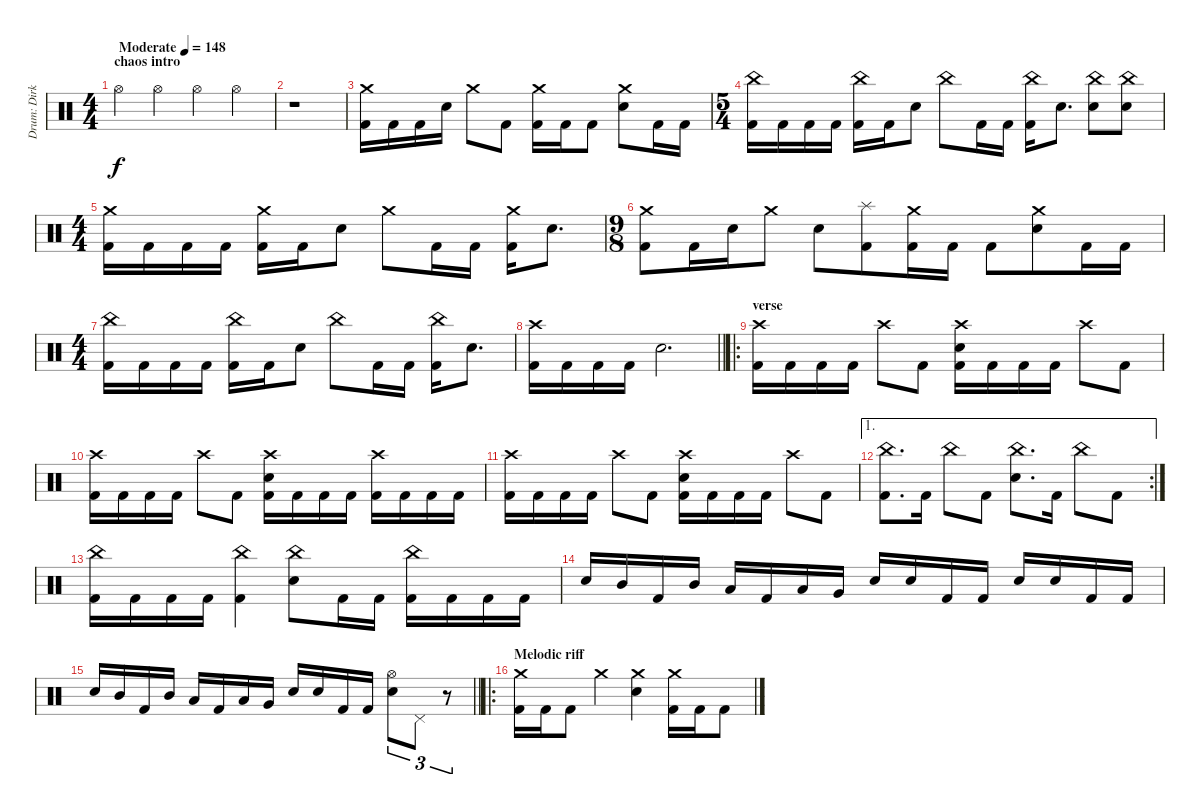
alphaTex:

\track ("Drum: Dirk" "Drum: Dirk") {instrument percussion}
\staff {score}
\articulation defaults
\ts (4 4)
\section ("" "chaos intro")
\tempo (148 "Moderate")
\clef neutral
\ks c "Hi-Hat (open)".4{dy f} "Hi-Hat (open)".4 "Hi-Hat (open)".4 "Hi-Hat (open)".4
|
r.1 |
("Crash medium (hit)" "Kick (hit) 2").16 "Kick (hit) 2".16 "Kick (hit) 2".16 "Electric Snare (hit)".16 "Crash medium (hit)".8 "Kick (hit) 2".8 ("Crash medium (hit)" "Kick (hit) 2").16 "Kick (hit) 2".16 "Kick (hit) 2".8 ("Crash medium (hit)" "Electric Snare (hit)").8 "Kick (hit) 2".16 "Kick (hit) 2".16 |
\ts (5 4)
("China (hit)" "Kick (hit) 2").16 "Kick (hit) 2".16 "Kick (hit) 2".16 "Kick (hit) 2".16 ("China (hit)" "Kick (hit) 2").16 "Kick (hit) 2".16 "Electric Snare (hit)".8 "China (hit)".8 "Kick (hit) 2".16 "Kick (hit) 2".16 ("China (hit)" "Kick (hit) 2").16 "Electric Snare (hit)".8{d} ("China (hit)" "Electric Snare (hit)").8 ("China (hit)" "Electric Snare (hit)").8 |
\ts (4 4)
("Crash medium (hit)" "Kick (hit) 2").16 "Kick (hit) 2".16 "Kick (hit) 2".16 "Kick (hit) 2".16 ("Crash medium (hit)" "Kick (hit) 2").16 "Kick (hit) 2".16 "Electric Snare (hit)".8 "Crash medium (hit)".8 "Kick (hit) 2".16 "Kick (hit) 2".16 ("Crash medium (hit)" "Kick (hit) 2").16 "Electric Snare (hit)".8{d} |
\ts (9 8)
("Crash medium (hit)" "Kick (hit) 2").8 "Kick (hit) 2".16 "Electric Snare (hit)".16 "Crash medium (hit)".8 "Electric Snare (hit)".8 ("Splash (hit)" "Kick (hit) 2").8 ("Crash medium (hit)" "Kick (hit) 2").16 "Kick (hit) 2".16 "Kick (hit) 2".8 ("Crash medium (hit)" "Electric Snare (hit)").8 "Kick (hit) 2".16 "Kick (hit) 2".16 |
\ts (4 4)
("China (hit)" "Kick (hit) 2").16 "Kick (hit) 2".16 "Kick (hit) 2".16 "Kick (hit) 2".16 ("China (hit)" "Kick (hit) 2").16 "Kick (hit) 2".16 "Electric Snare (hit)".8 "China (hit)".8 "Kick (hit) 2".16 "Kick (hit) 2".16 ("China (hit)" "Kick (hit) 2").16 "Electric Snare (hit)".8{d} |
\barLineRight lightlight
("Crash high (hit)" "Kick (hit) 2").16 "Kick (hit) 2".16 "Kick (hit) 2".16 "Kick (hit) 2".16 "Electric Snare (hit)".2{d} |
\ro
\section ("" "verse")
("Crash high (hit)" "Kick (hit) 2").16 "Kick (hit) 2".16 "Kick (hit) 2".16 "Kick (hit) 2".16 "Crash high (hit)".8 "Kick (hit) 2".8 ("Crash high (hit)" "Electric Snare (hit)" "Kick (hit) 2").16 "Kick (hit) 2".16 "Kick (hit) 2".16 "Kick (hit) 2".16 "Crash high (hit)".8 "Kick (hit) 2".8 |
("Crash high (hit)" "Kick (hit) 2").16 "Kick (hit) 2".16 "Kick (hit) 2".16 "Kick (hit) 2".16 "Crash high (hit)".8 "Kick (hit) 2".8 ("Crash high (hit)" "Electric Snare (hit)" "Kick (hit) 2").16 "Kick (hit) 2".16 "Kick (hit) 2".16 "Kick (hit) 2".16 ("Crash high (hit)" "Kick (hit) 2").16 "Kick (hit) 2".16 "Kick (hit) 2".16 "Kick (hit) 2".16 |
("Crash high (hit)" "Kick (hit) 2").16 "Kick (hit) 2".16 "Kick (hit) 2".16 "Kick (hit) 2".16 "Crash high (hit)".8 "Kick (hit) 2".8 ("Crash high (hit)" "Electric Snare (hit)" "Kick (hit) 2").16 "Kick (hit) 2".16 "Kick (hit) 2".16 "Kick (hit) 2".16 "Crash high (hit)".8 "Kick (hit) 2".8 |
\ae 1
\rc 2
("China (hit)" "Kick (hit) 2").8{d} "Kick (hit) 2".16 "China (hit)".8 "Kick (hit) 2".8 ("China (hit)" "Electric Snare (hit)").8{d} "Kick (hit) 2".16 "China (hit)".8 "Kick (hit) 2".8 |
("China (hit)" "Kick (hit) 2").16 "Kick (hit) 2".16 "Kick (hit) 2".16 "Kick (hit) 2".16 ("China (hit)" "Kick (hit) 2").4 ("China (hit)" "Electric Snare (hit)").8 "Kick (hit) 2".16 "Kick (hit) 2".16 ("China (hit)" "Kick (hit) 2").16 "Kick (hit) 2".16 "Kick (hit) 2".16 "Kick (hit) 2".16 |
"Electric Snare (hit)".16 "Mid Tom (hit)".16 "Kick (hit) 2".16 "Mid Tom (hit)".16 "Low Tom (hit)".16 "Kick (hit) 2".16 "Low Tom (hit)".16 "Very Low Tom (hit)".16 "Electric Snare (hit)".16 "Electric Snare (hit)".16 "Kick (hit) 2".16 "Kick (hit) 2".16 "Electric Snare (hit)".16 "Electric Snare (hit)".16 "Kick (hit) 2".16 "Kick (hit) 2".16 |
\barLineRight lightlight "Electric Snare (hit)".16 "Mid Tom (hit)".16 "Kick (hit) 2".16 "Mid Tom (hit)".16 "Low Tom (hit)".16 "Kick (hit) 2".16 "Low Tom (hit)".16 "Very Low Tom (hit)".16 "Electric Snare (hit)".16 "Electric Snare (hit)".16 "Kick (hit) 2".16 "Kick (hit) 2".16
("Hi-Hat (open)" "Electric Snare (hit)").8{tu (3 2)} "Pedal Hi-Hat (hit)".8{tu (3 2)} r.8{tu (3 2)} |
\ro
\section ("" "Melodic riff")
("Crash medium (hit)" "Kick (hit) 2").16 "Kick (hit) 2".16 "Kick (hit) 2".8 "Crash medium (hit)".4 ("Crash medium (hit)" "Electric Snare (hit)").4 ("Crash medium (hit)" "Kick (hit) 2").16 "Kick (hit) 2".16 "Kick (hit) 2".8
